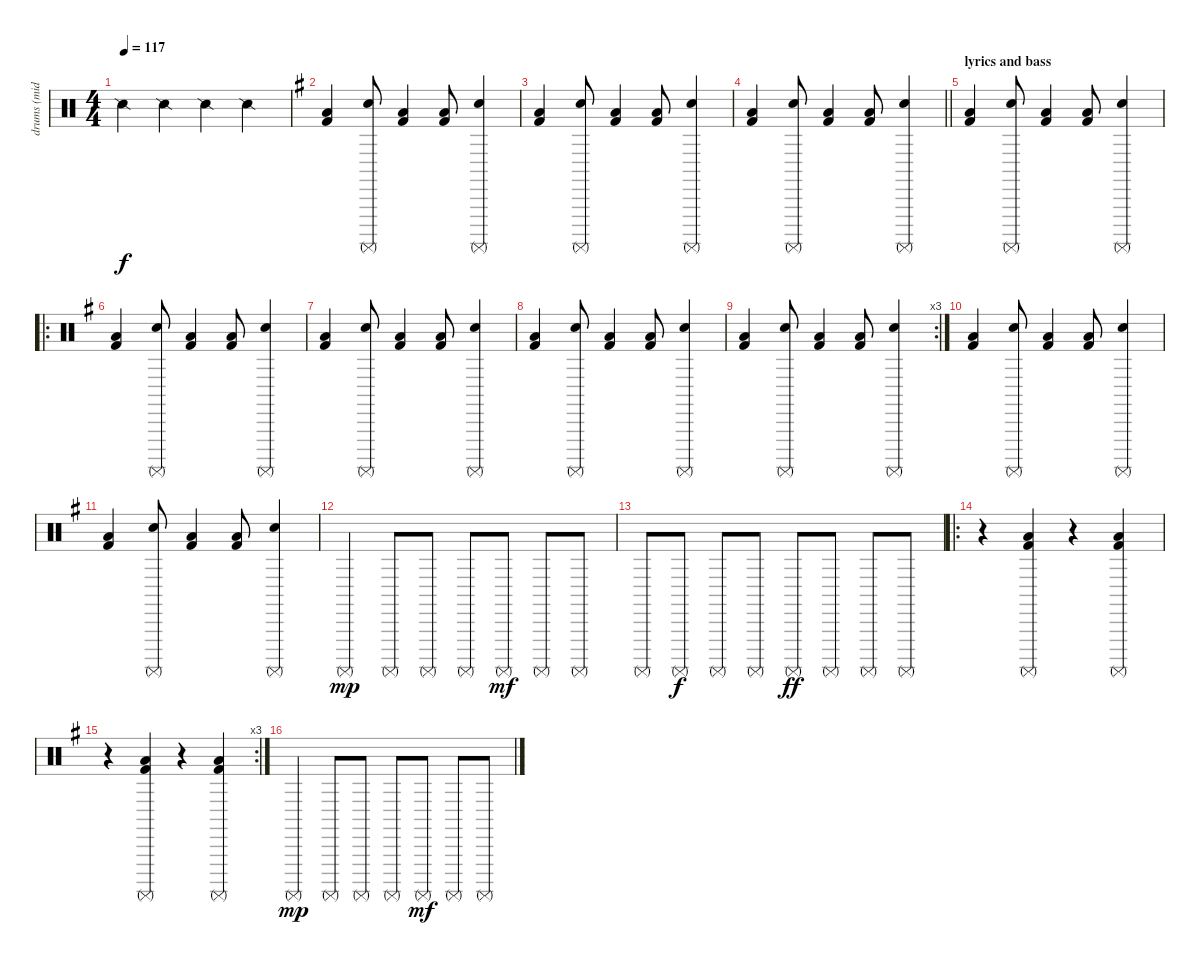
\track ("drums (midi sounds better)" "drums (mid") {instrument percussion}
\staff {score}
\articulation defaults
\ts (4 4)
\tempo 117
\clef neutral
\ks c "Snare (side stick) 2".4{dy f} "Snare (side stick) 2".4 "Snare (side stick) 2".4 "Snare (side stick) 2".4
|
\ks g
("Kick (hit) 2" "Low Floor Tom (hit)").4 ("Snare (hit) 2" "Surdo (mute)").8 ("Kick (hit) 2" "Low Floor Tom (hit)").4 ("Kick (hit) 2" "Low Floor Tom (hit)").8 ("Snare (hit) 2" "Surdo (mute)").4 |
("Kick (hit) 2" "Low Floor Tom (hit)").4 ("Snare (hit) 2" "Surdo (mute)").8 ("Kick (hit) 2" "Low Floor Tom (hit)").4 ("Kick (hit) 2" "Low Floor Tom (hit)").8 ("Snare (hit) 2" "Surdo (mute)").4 |
\barLineRight lightlight
("Kick (hit) 2" "Low Floor Tom (hit)").4 ("Snare (hit) 2" "Surdo (mute)").8 ("Kick (hit) 2" "Low Floor Tom (hit)").4 ("Kick (hit) 2" "Low Floor Tom (hit)").8 ("Snare (hit) 2" "Surdo (mute)").4 |
\section ("" "lyrics and bass")
("Kick (hit) 2" "Low Floor Tom (hit)").4 ("Snare (hit) 2" "Surdo (mute)").8 ("Kick (hit) 2" "Low Floor Tom (hit)").4 ("Kick (hit) 2" "Low Floor Tom (hit)").8 ("Snare (hit) 2" "Surdo (mute)").4 |
\ro
("Kick (hit) 2" "Low Floor Tom (hit)").4 ("Snare (hit) 2" "Surdo (mute)").8 ("Kick (hit) 2" "Low Floor Tom (hit)").4 ("Kick (hit) 2" "Low Floor Tom (hit)").8 ("Snare (hit) 2" "Surdo (mute)").4 |
("Kick (hit) 2" "Low Floor Tom (hit)").4 ("Snare (hit) 2" "Surdo (mute)").8 ("Kick (hit) 2" "Low Floor Tom (hit)").4 ("Kick (hit) 2" "Low Floor Tom (hit)").8 ("Snare (hit) 2" "Surdo (mute)").4 |
("Kick (hit) 2" "Low Floor Tom (hit)").4 ("Snare (hit) 2" "Surdo (mute)").8 ("Kick (hit) 2" "Low Floor Tom (hit)").4 ("Kick (hit) 2" "Low Floor Tom (hit)").8 ("Snare (hit) 2" "Surdo (mute)").4 |
\rc 3
("Kick (hit) 2" "Low Floor Tom (hit)").4 ("Snare (hit) 2" "Surdo (mute)").8 ("Kick (hit) 2" "Low Floor Tom (hit)").4 ("Kick (hit) 2" "Low Floor Tom (hit)").8 ("Snare (hit) 2" "Surdo (mute)").4 |
("Kick (hit) 2" "Low Floor Tom (hit)").4 ("Snare (hit) 2" "Surdo (mute)").8 ("Kick (hit) 2" "Low Floor Tom (hit)").4 ("Kick (hit) 2" "Low Floor Tom (hit)").8 ("Snare (hit) 2" "Surdo (mute)").4 |
("Kick (hit) 2" "Low Floor Tom (hit)").4 ("Snare (hit) 2" "Surdo (mute)").8 ("Kick (hit) 2" "Low Floor Tom (hit)").4 ("Kick (hit) 2" "Low Floor Tom (hit)").8 ("Snare (hit) 2" "Surdo (mute)").4 |
"Surdo (mute)".4{dy mp} "Surdo (mute)".8 "Surdo (mute)".8 "Surdo (mute)".8 "Surdo (mute)".8{dy mf} "Surdo (mute)".8 "Surdo (mute)".8 |
"Surdo (mute)".8 "Surdo (mute)".8{dy f} "Surdo (mute)".8 "Surdo (mute)".8 "Surdo (mute)".8{dy ff} "Surdo (mute)".8 "Surdo (mute)".8 "Surdo (mute)".8 |
\ro
r.4 ("Kick (hit) 2" "Surdo (mute)" "Low Floor Tom (hit)").4 r.4 ("Kick (hit) 2" "Surdo (mute)" "Low Floor Tom (hit)").4 |
\rc 3
r.4 ("Kick (hit) 2" "Surdo (mute)" "Low Floor Tom (hit)").4 r.4 ("Kick (hit) 2" "Surdo (mute)" "Low Floor Tom (hit)").4 |
"Surdo (mute)".4{dy mp} "Surdo (mute)".8 "Surdo (mute)".8 "Surdo (mute)".8 "Surdo (mute)".8{dy mf} "Surdo (mute)".8 "Surdo (mute)".8
